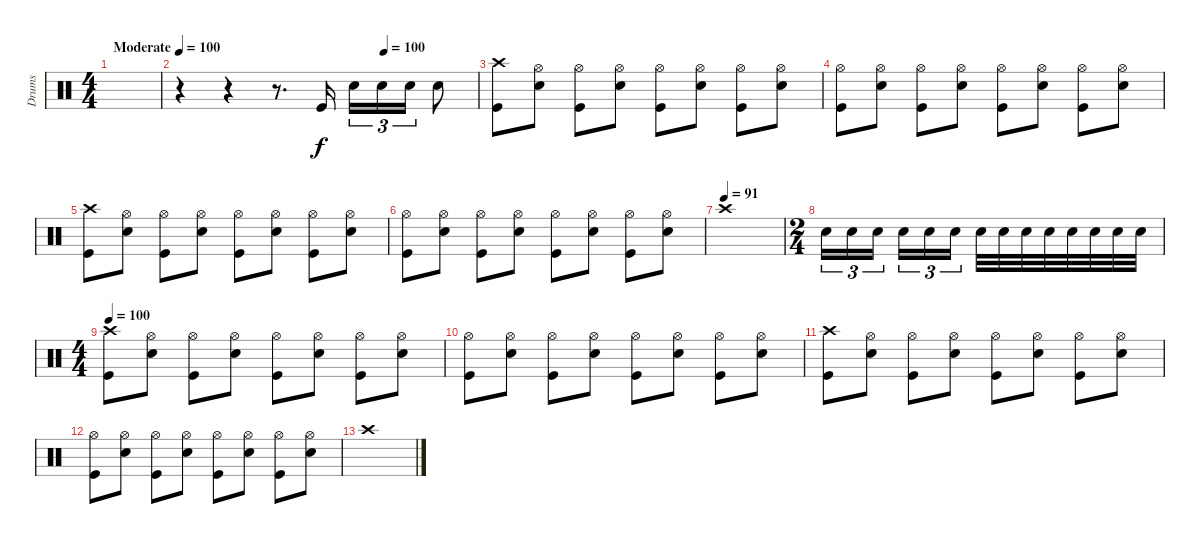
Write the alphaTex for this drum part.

\track ("Drums" "Drums") {instrument percussion}
\staff {score}
\articulation defaults
\ts (4 4)
\tempo (100 "Moderate")
\tempo 91
\tempo (100 "Moderate")
\clef neutral
\ks c
|
\tempo (100 0.6875)
r.4 r.4 r.8{d} "Kick (hit)".16 "Snare (hit) 2".16{tu (3 2)} "Snare (hit) 2".16{tu (3 2)} "Snare (hit) 2".16{tu (3 2)} "Snare (hit) 2".8 |
("Crash high (hit)" "Kick (hit)").8 ("Hi-Hat (open)" "Snare (hit) 2").8 ("Hi-Hat (open)" "Kick (hit)").8 ("Hi-Hat (open)" "Snare (hit) 2").8 ("Hi-Hat (open)" "Kick (hit)").8 ("Hi-Hat (open)" "Snare (hit) 2").8 ("Hi-Hat (open)" "Kick (hit)").8 ("Hi-Hat (open)" "Snare (hit) 2").8 |
("Hi-Hat (open)" "Kick (hit)").8 ("Hi-Hat (open)" "Snare (hit) 2").8 ("Hi-Hat (open)" "Kick (hit)").8 ("Hi-Hat (open)" "Snare (hit) 2").8 ("Hi-Hat (open)" "Kick (hit)").8 ("Hi-Hat (open)" "Snare (hit) 2").8 ("Hi-Hat (open)" "Kick (hit)").8 ("Hi-Hat (open)" "Snare (hit) 2").8 |
("Crash high (hit)" "Kick (hit)").8 ("Hi-Hat (open)" "Snare (hit) 2").8 ("Hi-Hat (open)" "Kick (hit)").8 ("Hi-Hat (open)" "Snare (hit) 2").8 ("Hi-Hat (open)" "Kick (hit)").8 ("Hi-Hat (open)" "Snare (hit) 2").8 ("Hi-Hat (open)" "Kick (hit)").8 ("Hi-Hat (open)" "Snare (hit) 2").8 |
("Hi-Hat (open)" "Kick (hit)").8 ("Hi-Hat (open)" "Snare (hit) 2").8 ("Hi-Hat (open)" "Kick (hit)").8 ("Hi-Hat (open)" "Snare (hit) 2").8 ("Hi-Hat (open)" "Kick (hit)").8 ("Hi-Hat (open)" "Snare (hit) 2").8 ("Hi-Hat (open)" "Kick (hit)").8 ("Hi-Hat (open)" "Snare (hit) 2").8 |
\tempo (91)
"Crash high (hit)".1 |
\ts (2 4)
"Snare (hit) 2".16{tu (3 2)} "Snare (hit) 2".16{tu (3 2)} "Snare (hit) 2".16{tu (3 2) beam splitsecondary} "Snare (hit) 2".16{tu (3 2)} "Snare (hit) 2".16{tu (3 2)} "Snare (hit) 2".16{tu (3 2)} "Snare (hit) 2".32 "Snare (hit) 2".32 "Snare (hit) 2".32 "Snare (hit) 2".32 "Snare (hit) 2".32 "Snare (hit) 2".32 "Snare (hit) 2".32 "Snare (hit) 2".32 |
\ts (4 4)
\tempo 100
("Crash high (hit)" "Kick (hit)").8 ("Hi-Hat (open)" "Snare (hit) 2").8 ("Hi-Hat (open)" "Kick (hit)").8 ("Hi-Hat (open)" "Snare (hit) 2").8 ("Hi-Hat (open)" "Kick (hit)").8 ("Hi-Hat (open)" "Snare (hit) 2").8 ("Hi-Hat (open)" "Kick (hit)").8 ("Hi-Hat (open)" "Snare (hit) 2").8 |
("Hi-Hat (open)" "Kick (hit)").8 ("Hi-Hat (open)" "Snare (hit) 2").8 ("Hi-Hat (open)" "Kick (hit)").8 ("Hi-Hat (open)" "Snare (hit) 2").8 ("Hi-Hat (open)" "Kick (hit)").8 ("Hi-Hat (open)" "Snare (hit) 2").8 ("Hi-Hat (open)" "Kick (hit)").8 ("Hi-Hat (open)" "Snare (hit) 2").8 |
("Crash high (hit)" "Kick (hit)").8{volume 0} ("Hi-Hat (open)" "Snare (hit) 2").8 ("Hi-Hat (open)" "Kick (hit)").8 ("Hi-Hat (open)" "Snare (hit) 2").8 ("Hi-Hat (open)" "Kick (hit)").8 ("Hi-Hat (open)" "Snare (hit) 2").8 ("Hi-Hat (open)" "Kick (hit)").8 ("Hi-Hat (open)" "Snare (hit) 2").8 |
("Hi-Hat (open)" "Kick (hit)").8 ("Hi-Hat (open)" "Snare (hit) 2").8 ("Hi-Hat (open)" "Kick (hit)").8 ("Hi-Hat (open)" "Snare (hit) 2").8 ("Hi-Hat (open)" "Kick (hit)").8 ("Hi-Hat (open)" "Snare (hit) 2").8 ("Hi-Hat (open)" "Kick (hit)").8 ("Hi-Hat (open)" "Snare (hit) 2").8 |
"Crash high (hit)".1
